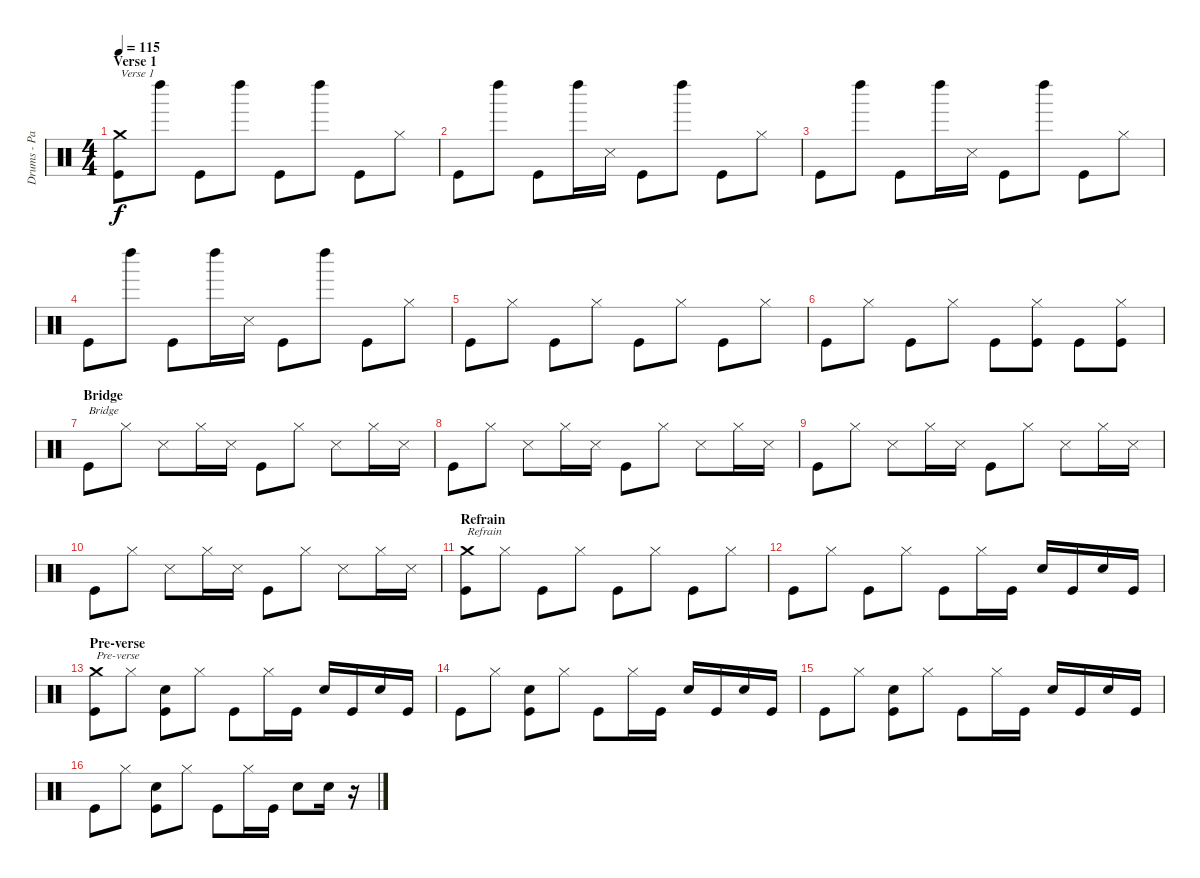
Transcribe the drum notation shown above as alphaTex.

\track ("Drums - Paul Thomson" "Drums - Pa") {instrument percussion}
\staff {score}
\articulation defaults
\ts (4 4)
\section ("" "Verse 1")
\tempo 115
\clef neutral
\ks c
("Kick (hit)" "Crash medium (hit)").8{txt "Verse 1" dy f} "Left Maraca (hit)".8 "Kick (hit)".8 "Left Maraca (hit)".8 "Kick (hit)".8 "Left Maraca (hit)".8 "Kick (hit)".8 "Hi-Hat (closed)".8 |
"Kick (hit)".8 "Left Maraca (hit)".8 "Kick (hit)".8 "Left Maraca (hit)".16 "Snare (side stick) 3".16 "Kick (hit)".8 "Left Maraca (hit)".8 "Kick (hit)".8 "Hi-Hat (closed)".8 |
"Kick (hit)".8 "Left Maraca (hit)".8 "Kick (hit)".8 "Left Maraca (hit)".16 "Snare (side stick) 3".16 "Kick (hit)".8 "Left Maraca (hit)".8 "Kick (hit)".8 "Hi-Hat (closed)".8 |
"Kick (hit)".8 "Left Maraca (hit)".8 "Kick (hit)".8 "Left Maraca (hit)".16 "Snare (side stick) 3".16 "Kick (hit)".8 "Left Maraca (hit)".8 "Kick (hit)".8 "Hi-Hat (closed)".8 |
"Kick (hit)".8 "Hi-Hat (closed)".8 "Kick (hit)".8 "Hi-Hat (closed)".8 "Kick (hit)".8 "Hi-Hat (closed)".8 "Kick (hit)".8 "Hi-Hat (closed)".8 |
"Kick (hit)".8 "Hi-Hat (closed)".8 "Kick (hit)".8 "Hi-Hat (closed)".8 "Kick (hit)".8 ("Kick (hit)" "Hi-Hat (closed)").8 "Kick (hit)".8 ("Kick (hit)" "Hi-Hat (closed)").8 |
\section ("" "Bridge")
"Kick (hit)".8{txt "Bridge"} "Hi-Hat (closed)".8 "Snare (side stick) 3".8 "Hi-Hat (closed)".16 "Snare (side stick) 3".16 "Kick (hit)".8 "Hi-Hat (closed)".8 "Snare (side stick) 3".8 "Hi-Hat (closed)".16 "Snare (side stick) 3".16 |
"Kick (hit)".8 "Hi-Hat (closed)".8 "Snare (side stick) 3".8 "Hi-Hat (closed)".16 "Snare (side stick) 3".16 "Kick (hit)".8 "Hi-Hat (closed)".8 "Snare (side stick) 3".8 "Hi-Hat (closed)".16 "Snare (side stick) 3".16 |
"Kick (hit)".8 "Hi-Hat (closed)".8 "Snare (side stick) 3".8 "Hi-Hat (closed)".16 "Snare (side stick) 3".16 "Kick (hit)".8 "Hi-Hat (closed)".8 "Snare (side stick) 3".8 "Hi-Hat (closed)".16 "Snare (side stick) 3".16 |
"Kick (hit)".8 "Hi-Hat (closed)".8 "Snare (side stick) 3".8 "Hi-Hat (closed)".16 "Snare (side stick) 3".16 "Kick (hit)".8 "Hi-Hat (closed)".8 "Snare (side stick) 3".8 "Hi-Hat (closed)".16 "Snare (side stick) 3".16 |
\section ("" "Refrain")
("Kick (hit)" "Crash medium (hit)").8{txt "Refrain"} "Hi-Hat (closed)".8 "Kick (hit)".8 "Hi-Hat (closed)".8 "Kick (hit)".8 "Hi-Hat (closed)".8 "Kick (hit)".8 "Hi-Hat (closed)".8 |
"Kick (hit)".8 "Hi-Hat (closed)".8 "Kick (hit)".8 "Hi-Hat (closed)".8 "Kick (hit)".8 "Hi-Hat (closed)".16 "Kick (hit)".16 "Electric Snare (hit)".16 "Kick (hit)".16 "Electric Snare (hit)".16 "Kick (hit)".16 |
\section ("" "Pre-verse")
("Kick (hit)" "Crash medium (hit)").8{txt "Pre-verse"} "Hi-Hat (closed)".8 ("Kick (hit)" "Electric Snare (hit)").8 "Hi-Hat (closed)".8 "Kick (hit)".8 "Hi-Hat (closed)".16 "Kick (hit)".16 "Electric Snare (hit)".16 "Kick (hit)".16 "Electric Snare (hit)".16 "Kick (hit)".16 |
"Kick (hit)".8 "Hi-Hat (closed)".8 ("Kick (hit)" "Electric Snare (hit)").8 "Hi-Hat (closed)".8 "Kick (hit)".8 "Hi-Hat (closed)".16 "Kick (hit)".16 "Electric Snare (hit)".16 "Kick (hit)".16 "Electric Snare (hit)".16 "Kick (hit)".16 |
"Kick (hit)".8 "Hi-Hat (closed)".8 ("Kick (hit)" "Electric Snare (hit)").8 "Hi-Hat (closed)".8 "Kick (hit)".8 "Hi-Hat (closed)".16 "Kick (hit)".16 "Electric Snare (hit)".16 "Kick (hit)".16 "Electric Snare (hit)".16 "Kick (hit)".16 |
"Kick (hit)".8 "Hi-Hat (closed)".8 ("Kick (hit)" "Electric Snare (hit)").8 "Hi-Hat (closed)".8 "Kick (hit)".8 "Hi-Hat (closed)".16 "Kick (hit)".16 "Electric Snare (hit)".8 "Electric Snare (hit)".16 r.16
